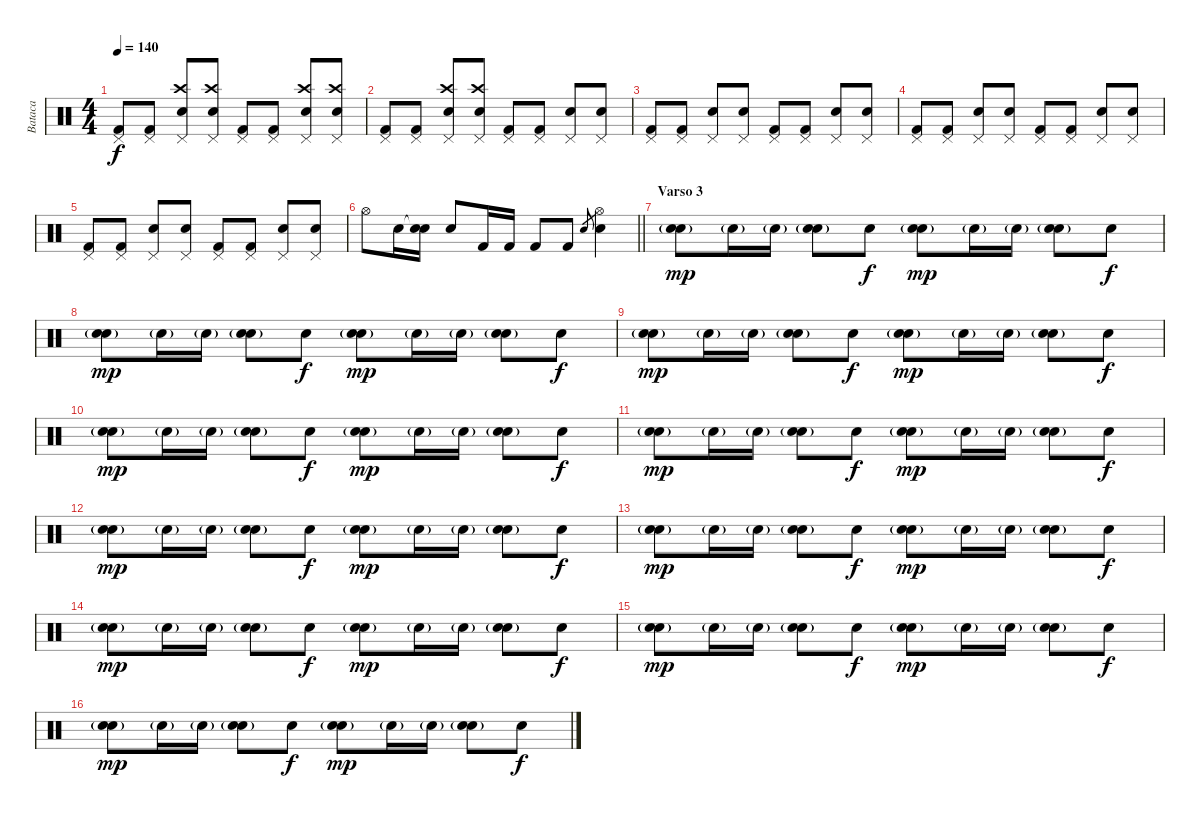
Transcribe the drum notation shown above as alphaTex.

\track ("Bataca" "Bataca") {instrument percussion}
\staff {score}
\articulation defaults
\ts (4 4)
\tempo 140
\clef neutral
\ks c
("Pedal Hi-Hat (hit)" "Kick (hit) 2").8{dy f} ("Pedal Hi-Hat (hit)" "Kick (hit) 2").8 ("Crash high (hit)" "Pedal Hi-Hat (hit)" "Electric Snare (hit)").8 ("Crash high (hit)" "Pedal Hi-Hat (hit)" "Electric Snare (hit)").8 ("Pedal Hi-Hat (hit)" "Kick (hit) 2").8 ("Pedal Hi-Hat (hit)" "Kick (hit) 2").8 ("Crash high (hit)" "Pedal Hi-Hat (hit)" "Electric Snare (hit)").8 ("Crash high (hit)" "Pedal Hi-Hat (hit)" "Electric Snare (hit)").8 |
("Pedal Hi-Hat (hit)" "Kick (hit) 2").8 ("Pedal Hi-Hat (hit)" "Kick (hit) 2").8 ("Crash high (hit)" "Pedal Hi-Hat (hit)" "Electric Snare (hit)").8 ("Crash high (hit)" "Pedal Hi-Hat (hit)" "Electric Snare (hit)").8 ("Pedal Hi-Hat (hit)" "Kick (hit) 2").8 ("Pedal Hi-Hat (hit)" "Kick (hit) 2").8 ("Pedal Hi-Hat (hit)" "Electric Snare (hit)").8 ("Pedal Hi-Hat (hit)" "Electric Snare (hit)").8 |
("Pedal Hi-Hat (hit)" "Kick (hit) 2").8 ("Pedal Hi-Hat (hit)" "Kick (hit) 2").8 ("Pedal Hi-Hat (hit)" "Electric Snare (hit)").8 ("Pedal Hi-Hat (hit)" "Electric Snare (hit)").8 ("Pedal Hi-Hat (hit)" "Kick (hit) 2").8 ("Pedal Hi-Hat (hit)" "Kick (hit) 2").8 ("Pedal Hi-Hat (hit)" "Electric Snare (hit)").8 ("Pedal Hi-Hat (hit)" "Electric Snare (hit)").8 |
("Pedal Hi-Hat (hit)" "Kick (hit) 2").8 ("Pedal Hi-Hat (hit)" "Kick (hit) 2").8 ("Pedal Hi-Hat (hit)" "Electric Snare (hit)").8 ("Pedal Hi-Hat (hit)" "Electric Snare (hit)").8 ("Pedal Hi-Hat (hit)" "Kick (hit) 2").8 ("Pedal Hi-Hat (hit)" "Kick (hit) 2").8 ("Pedal Hi-Hat (hit)" "Electric Snare (hit)").8 ("Pedal Hi-Hat (hit)" "Electric Snare (hit)").8 |
("Pedal Hi-Hat (hit)" "Kick (hit) 2").8 ("Pedal Hi-Hat (hit)" "Kick (hit) 2").8 ("Pedal Hi-Hat (hit)" "Electric Snare (hit)").8 ("Pedal Hi-Hat (hit)" "Electric Snare (hit)").8 ("Pedal Hi-Hat (hit)" "Kick (hit) 2").8 ("Pedal Hi-Hat (hit)" "Kick (hit) 2").8 ("Pedal Hi-Hat (hit)" "Electric Snare (hit)").8 ("Pedal Hi-Hat (hit)" "Electric Snare (hit)").8 |
\barLineRight lightlight "Hi-Hat (open)".8 "Electric Snare (hit)".16
("Electric Snare (hit)"{t} "Electric Snare (hit)").16 "Electric Snare (hit)".8 "Kick (hit) 2".16 "Kick (hit) 2".16 "Kick (hit) 2".8 "Kick (hit) 2".8 "Electric Snare (hit)".8{gr} ("Hi-Hat (open)" "Electric Snare (hit)").4 |
\section ("" "Varso 3")
("Snare (hit) 2" "Electric Snare (hit)"{g}).8{dy mp} "Electric Snare (hit)"{g}.16 "Electric Snare (hit)"{g}.16 ("Snare (hit) 2" "Electric Snare (hit)"{g}).8 "Electric Snare (hit)".8{dy f} ("Snare (hit) 2" "Electric Snare (hit)"{g}).8{dy mp} "Electric Snare (hit)"{g}.16 "Electric Snare (hit)"{g}.16 ("Snare (hit) 2" "Electric Snare (hit)"{g}).8 "Electric Snare (hit)".8{dy f} |
("Snare (hit) 2" "Electric Snare (hit)"{g}).8{dy mp} "Electric Snare (hit)"{g}.16 "Electric Snare (hit)"{g}.16 ("Snare (hit) 2" "Electric Snare (hit)"{g}).8 "Electric Snare (hit)".8{dy f} ("Snare (hit) 2" "Electric Snare (hit)"{g}).8{dy mp} "Electric Snare (hit)"{g}.16 "Electric Snare (hit)"{g}.16 ("Snare (hit) 2" "Electric Snare (hit)"{g}).8 "Electric Snare (hit)".8{dy f} |
("Snare (hit) 2" "Electric Snare (hit)"{g}).8{dy mp} "Electric Snare (hit)"{g}.16 "Electric Snare (hit)"{g}.16 ("Snare (hit) 2" "Electric Snare (hit)"{g}).8 "Electric Snare (hit)".8{dy f} ("Snare (hit) 2" "Electric Snare (hit)"{g}).8{dy mp} "Electric Snare (hit)"{g}.16 "Electric Snare (hit)"{g}.16 ("Snare (hit) 2" "Electric Snare (hit)"{g}).8 "Electric Snare (hit)".8{dy f} |
("Snare (hit) 2" "Electric Snare (hit)"{g}).8{dy mp} "Electric Snare (hit)"{g}.16 "Electric Snare (hit)"{g}.16 ("Snare (hit) 2" "Electric Snare (hit)"{g}).8 "Electric Snare (hit)".8{dy f} ("Snare (hit) 2" "Electric Snare (hit)"{g}).8{dy mp} "Electric Snare (hit)"{g}.16 "Electric Snare (hit)"{g}.16 ("Snare (hit) 2" "Electric Snare (hit)"{g}).8 "Electric Snare (hit)".8{dy f} |
("Snare (hit) 2" "Electric Snare (hit)"{g}).8{dy mp} "Electric Snare (hit)"{g}.16 "Electric Snare (hit)"{g}.16 ("Snare (hit) 2" "Electric Snare (hit)"{g}).8 "Electric Snare (hit)".8{dy f} ("Snare (hit) 2" "Electric Snare (hit)"{g}).8{dy mp} "Electric Snare (hit)"{g}.16 "Electric Snare (hit)"{g}.16 ("Snare (hit) 2" "Electric Snare (hit)"{g}).8 "Electric Snare (hit)".8{dy f} |
("Snare (hit) 2" "Electric Snare (hit)"{g}).8{dy mp} "Electric Snare (hit)"{g}.16 "Electric Snare (hit)"{g}.16 ("Snare (hit) 2" "Electric Snare (hit)"{g}).8 "Electric Snare (hit)".8{dy f} ("Snare (hit) 2" "Electric Snare (hit)"{g}).8{dy mp} "Electric Snare (hit)"{g}.16 "Electric Snare (hit)"{g}.16 ("Snare (hit) 2" "Electric Snare (hit)"{g}).8 "Electric Snare (hit)".8{dy f} |
("Snare (hit) 2" "Electric Snare (hit)"{g}).8{dy mp} "Electric Snare (hit)"{g}.16 "Electric Snare (hit)"{g}.16 ("Snare (hit) 2" "Electric Snare (hit)"{g}).8 "Electric Snare (hit)".8{dy f} ("Snare (hit) 2" "Electric Snare (hit)"{g}).8{dy mp} "Electric Snare (hit)"{g}.16 "Electric Snare (hit)"{g}.16 ("Snare (hit) 2" "Electric Snare (hit)"{g}).8 "Electric Snare (hit)".8{dy f} |
("Snare (hit) 2" "Electric Snare (hit)"{g}).8{dy mp} "Electric Snare (hit)"{g}.16 "Electric Snare (hit)"{g}.16 ("Snare (hit) 2" "Electric Snare (hit)"{g}).8 "Electric Snare (hit)".8{dy f} ("Snare (hit) 2" "Electric Snare (hit)"{g}).8{dy mp} "Electric Snare (hit)"{g}.16 "Electric Snare (hit)"{g}.16 ("Snare (hit) 2" "Electric Snare (hit)"{g}).8 "Electric Snare (hit)".8{dy f} |
("Snare (hit) 2" "Electric Snare (hit)"{g}).8{dy mp} "Electric Snare (hit)"{g}.16 "Electric Snare (hit)"{g}.16 ("Snare (hit) 2" "Electric Snare (hit)"{g}).8 "Electric Snare (hit)".8{dy f} ("Snare (hit) 2" "Electric Snare (hit)"{g}).8{dy mp} "Electric Snare (hit)"{g}.16 "Electric Snare (hit)"{g}.16 ("Snare (hit) 2" "Electric Snare (hit)"{g}).8 "Electric Snare (hit)".8{dy f} |
("Snare (hit) 2" "Electric Snare (hit)"{g}).8{dy mp} "Electric Snare (hit)"{g}.16 "Electric Snare (hit)"{g}.16 ("Snare (hit) 2" "Electric Snare (hit)"{g}).8 "Electric Snare (hit)".8{dy f} ("Snare (hit) 2" "Electric Snare (hit)"{g}).8{dy mp} "Electric Snare (hit)"{g}.16 "Electric Snare (hit)"{g}.16 ("Snare (hit) 2" "Electric Snare (hit)"{g}).8 "Electric Snare (hit)".8{dy f}
